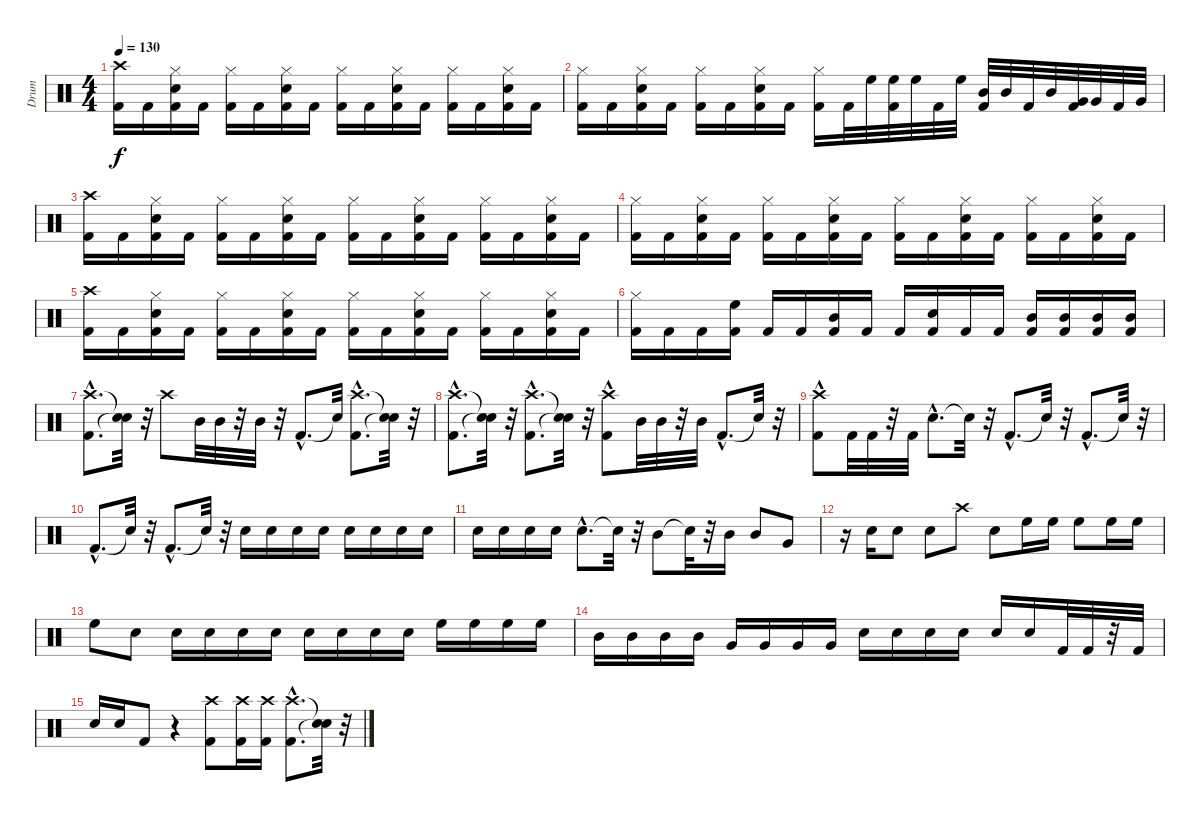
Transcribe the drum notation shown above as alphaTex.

\track ("Drum" "Drum") {instrument percussion}
\staff {score}
\articulation defaults
\ts (4 4)
\tempo 130
\clef neutral
\ks c
("Kick (hit) 2" "Crash high (hit)").16{dy f} "Kick (hit) 2".16 ("Kick (hit) 2" "Hi-Hat (closed)" "Snare (hit) 2").16 "Kick (hit) 2".16 ("Kick (hit) 2" "Hi-Hat (closed)").16 "Kick (hit) 2".16 ("Kick (hit) 2" "Hi-Hat (closed)" "Snare (hit) 2").16 "Kick (hit) 2".16 ("Kick (hit) 2" "Hi-Hat (closed)").16 "Kick (hit) 2".16 ("Kick (hit) 2" "Hi-Hat (closed)" "Snare (hit) 2").16 "Kick (hit) 2".16 ("Kick (hit) 2" "Hi-Hat (closed)").16 "Kick (hit) 2".16 ("Kick (hit) 2" "Hi-Hat (closed)" "Snare (hit) 2").16 "Kick (hit) 2".16 |
("Hi-Hat (closed)" "Kick (hit) 2").16 "Kick (hit) 2".16 ("Hi-Hat (closed)" "Snare (hit) 2" "Kick (hit) 2").16 "Kick (hit) 2".16 ("Hi-Hat (closed)" "Kick (hit) 2").16 "Kick (hit) 2".16 ("Hi-Hat (closed)" "Snare (hit) 2" "Kick (hit) 2").16 "Kick (hit) 2".16 ("Kick (hit) 2" "Hi-Hat (closed)").16 "Kick (hit) 2".32 "High Floor Tom (hit)".32 ("Kick (hit) 2" "High Floor Tom (hit)").32 "High Floor Tom (hit)".32 "Kick (hit) 2".32 "High Floor Tom (hit)".32 ("Kick (hit) 2" "Mid Tom (hit)").32 "Mid Tom (hit)".32 "Kick (hit) 2".32 "Mid Tom (hit)".32 ("Kick (hit) 2" "Very Low Tom (hit)").32 "Very Low Tom (hit)".32 "Kick (hit) 2".32 "Very Low Tom (hit)".32 |
("Kick (hit) 2" "Crash high (hit)").16 "Kick (hit) 2".16 ("Kick (hit) 2" "Hi-Hat (closed)" "Snare (hit) 2").16 "Kick (hit) 2".16 ("Kick (hit) 2" "Hi-Hat (closed)").16 "Kick (hit) 2".16 ("Kick (hit) 2" "Hi-Hat (closed)" "Snare (hit) 2").16 "Kick (hit) 2".16 ("Kick (hit) 2" "Hi-Hat (closed)").16 "Kick (hit) 2".16 ("Kick (hit) 2" "Hi-Hat (closed)" "Snare (hit) 2").16 "Kick (hit) 2".16 ("Kick (hit) 2" "Hi-Hat (closed)").16 "Kick (hit) 2".16 ("Kick (hit) 2" "Hi-Hat (closed)" "Snare (hit) 2").16 "Kick (hit) 2".16 |
("Kick (hit) 2" "Hi-Hat (closed)").16 "Kick (hit) 2".16 ("Kick (hit) 2" "Hi-Hat (closed)" "Snare (hit) 2").16 "Kick (hit) 2".16 ("Kick (hit) 2" "Hi-Hat (closed)").16 "Kick (hit) 2".16 ("Kick (hit) 2" "Hi-Hat (closed)" "Snare (hit) 2").16 "Kick (hit) 2".16 ("Kick (hit) 2" "Hi-Hat (closed)").16 "Kick (hit) 2".16 ("Kick (hit) 2" "Hi-Hat (closed)" "Snare (hit) 2").16 "Kick (hit) 2".16 ("Kick (hit) 2" "Hi-Hat (closed)").16 "Kick (hit) 2".16 ("Kick (hit) 2" "Hi-Hat (closed)" "Snare (hit) 2").16 "Kick (hit) 2".16 |
("Kick (hit) 2" "Crash high (hit)").16 "Kick (hit) 2".16 ("Kick (hit) 2" "Hi-Hat (closed)" "Snare (hit) 2").16 "Kick (hit) 2".16 ("Kick (hit) 2" "Hi-Hat (closed)").16 "Kick (hit) 2".16 ("Kick (hit) 2" "Hi-Hat (closed)" "Snare (hit) 2").16 "Kick (hit) 2".16 ("Kick (hit) 2" "Hi-Hat (closed)").16 "Kick (hit) 2".16 ("Kick (hit) 2" "Hi-Hat (closed)" "Snare (hit) 2").16 "Kick (hit) 2".16 ("Kick (hit) 2" "Hi-Hat (closed)").16 "Kick (hit) 2".16 ("Kick (hit) 2" "Hi-Hat (closed)" "Snare (hit) 2").16 "Kick (hit) 2".16 |
("Hi-Hat (closed)" "Kick (hit) 2").16 "Kick (hit) 2".16 "Kick (hit) 2".16 ("High Floor Tom (hit)" "Kick (hit) 2").16 "Kick (hit) 2".16 "Kick (hit) 2".16 ("Kick (hit) 2" "Mid Tom (hit)").16 "Kick (hit) 2".16 "Kick (hit) 2".16 ("Kick (hit) 2" "Snare (hit) 2").16 "Kick (hit) 2".16 "Kick (hit) 2".16 ("Kick (hit) 2" "Mid Tom (hit)").16 ("Kick (hit) 2" "Mid Tom (hit)").16 ("Kick (hit) 2" "Mid Tom (hit)").16 ("Kick (hit) 2" "Mid Tom (hit)").16 |
("Crash high (hit)"{hac} "Kick (hit) 2"{hac}).8{d} ("Snare (hit)"{t} "Snare (hit)"{t}).32 r.32 "Crash high (hit)".8 "Mid Tom (hit)".32 "Mid Tom (hit)".32 r.32 "Mid Tom (hit)".32 r.32 "Kick (hit) 2"{hac}.8{d} "Snare (hit)"{t}.32 ("Kick (hit) 2"{hac} "Crash high (hit)"{hac}).8{d} ("Snare (hit)"{t} "Snare (hit)"{t}).32 r.32 |
("Kick (hit) 2"{hac} "Crash high (hit)"{hac}).8{d} ("Snare (hit)"{t} "Snare (hit)"{t}).32 r.32 ("Kick (hit) 2"{hac} "Crash high (hit)"{hac}).8{d} ("Snare (hit)"{t} "Snare (hit)"{t}).32 r.32 ("Kick (hit) 2"{hac} "Crash high (hit)").8 "Mid Tom (hit)".32 "Mid Tom (hit)".32 r.32 "Mid Tom (hit)".32 "Kick (hit) 2"{hac}.8{d} "Snare (hit)"{t}.32 r.32 |
("Kick (hit) 2" "Crash high (hit)"{hac}).8 "Kick (hit) 2".32 "Kick (hit) 2".32 r.32 "Kick (hit) 2".32 "Snare (hit) 2"{hac}.8{d} "Snare (hit)"{t}.32 r.32 "Kick (hit) 2"{hac}.8{d} "Snare (hit)"{t}.32 r.32 "Kick (hit) 2"{hac}.8{d} "Snare (hit)"{t}.32 r.32 |
"Kick (hit) 2"{hac}.8{d} "Snare (hit)"{t}.32 r.32 "Kick (hit) 2"{hac}.8{d} "Snare (hit)"{t}.32 r.32 "Snare (hit) 2".16 "Snare (hit) 2".16 "Snare (hit) 2".16 "Snare (hit) 2".16 "Snare (hit) 2".16 "Snare (hit) 2".16 "Snare (hit) 2".16 "Snare (hit) 2".16 |
"Snare (hit) 2".16 "Snare (hit) 2".16 "Snare (hit) 2".16 "Snare (hit) 2".16 "Snare (hit) 2"{hac}.8{d} "Snare (hit)"{t}.32 r.32 "Mid Tom (hit)".8 "Snare (hit)"{t}.32 r.32 "Mid Tom (hit)".16 "Mid Tom (hit)".8 "Very Low Tom (hit)".8 |
r.16 "Snare (hit) 2".16 "Snare (hit) 2".8 "Snare (hit) 2".8 "Crash high (hit)".8 "Snare (hit) 2".8 "High Floor Tom (hit)".16 "High Floor Tom (hit)".16 "High Floor Tom (hit)".8 "High Floor Tom (hit)".16 "High Floor Tom (hit)".16 |
"High Floor Tom (hit)".8 "Snare (hit) 2".8 "Snare (hit) 2".16 "Snare (hit) 2".16 "Snare (hit) 2".16 "Snare (hit) 2".16 "Snare (hit) 2".16 "Snare (hit) 2".16 "Snare (hit) 2".16 "Snare (hit) 2".16 "High Floor Tom (hit)".16 "High Floor Tom (hit)".16 "High Floor Tom (hit)".16 "High Floor Tom (hit)".16 |
"Mid Tom (hit)".16 "Mid Tom (hit)".16 "Mid Tom (hit)".16 "Mid Tom (hit)".16 "Very Low Tom (hit)".16 "Very Low Tom (hit)".16 "Very Low Tom (hit)".16 "Very Low Tom (hit)".16 "Snare (hit) 2".16 "Snare (hit) 2".16 "Snare (hit) 2".16 "Snare (hit) 2".16 "Snare (hit) 2".16 "Snare (hit) 2".16 "Kick (hit) 2".32 "Kick (hit) 2".32 r.32 "Kick (hit) 2".32 |
"Snare (hit) 2".16 "Snare (hit) 2".16 "Kick (hit) 2".8 r.4 ("Crash high (hit)" "Kick (hit) 2").8 ("Crash high (hit)" "Kick (hit) 2").16 ("Crash high (hit)" "Kick (hit) 2").16 ("Kick (hit) 2"{hac} "Crash high (hit)"{hac}).8{d} ("Snare (hit)"{t} "Snare (hit)"{t}).32 r.32
